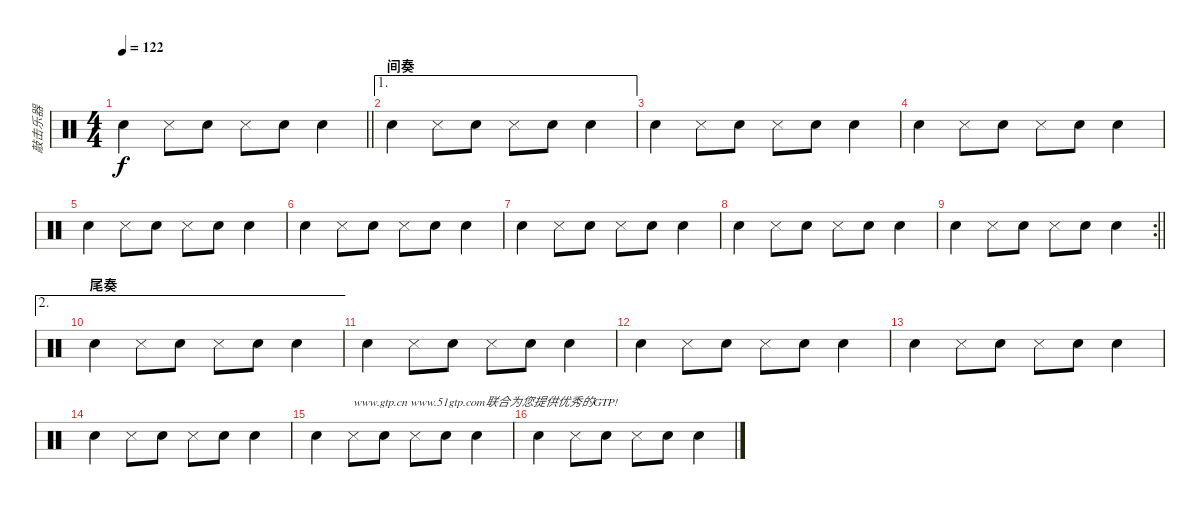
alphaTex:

\track ("敲击乐器" "敲击乐器") {instrument percussion}
\staff {score}
\articulation defaults
\ts (4 4)
\tempo 122
\clef neutral
\barLineRight lightlight
\ks c "Snare (hit) 2".4{dy f} "Snare (side stick) 3".8 "Snare (hit) 2".8 "Snare (side stick) 3".8 "Snare (hit) 2".8 "Snare (hit) 2".4
|
\ae 1
\section ("" "间奏")
"Snare (hit) 2".4 "Snare (side stick) 3".8 "Snare (hit) 2".8 "Snare (side stick) 3".8 "Snare (hit) 2".8 "Snare (hit) 2".4 |
"Snare (hit) 2".4 "Snare (side stick) 3".8 "Snare (hit) 2".8 "Snare (side stick) 3".8 "Snare (hit) 2".8 "Snare (hit) 2".4 |
"Snare (hit) 2".4 "Snare (side stick) 3".8 "Snare (hit) 2".8 "Snare (side stick) 3".8 "Snare (hit) 2".8 "Snare (hit) 2".4 |
"Snare (hit) 2".4 "Snare (side stick) 3".8 "Snare (hit) 2".8 "Snare (side stick) 3".8 "Snare (hit) 2".8 "Snare (hit) 2".4 |
"Snare (hit) 2".4 "Snare (side stick) 3".8 "Snare (hit) 2".8 "Snare (side stick) 3".8 "Snare (hit) 2".8 "Snare (hit) 2".4 |
"Snare (hit) 2".4 "Snare (side stick) 3".8 "Snare (hit) 2".8 "Snare (side stick) 3".8 "Snare (hit) 2".8 "Snare (hit) 2".4 |
"Snare (hit) 2".4 "Snare (side stick) 3".8 "Snare (hit) 2".8 "Snare (side stick) 3".8 "Snare (hit) 2".8 "Snare (hit) 2".4 |
\rc 2
\barLineRight lightlight "Snare (hit) 2".4 "Snare (side stick) 3".8 "Snare (hit) 2".8 "Snare (side stick) 3".8 "Snare (hit) 2".8 "Snare (hit) 2".4
|
\ae 2
\section ("" "尾奏")
"Snare (hit) 2".4 "Snare (side stick) 3".8 "Snare (hit) 2".8 "Snare (side stick) 3".8 "Snare (hit) 2".8 "Snare (hit) 2".4 |
"Snare (hit) 2".4 "Snare (side stick) 3".8 "Snare (hit) 2".8 "Snare (side stick) 3".8 "Snare (hit) 2".8 "Snare (hit) 2".4 |
"Snare (hit) 2".4 "Snare (side stick) 3".8 "Snare (hit) 2".8 "Snare (side stick) 3".8 "Snare (hit) 2".8 "Snare (hit) 2".4 |
"Snare (hit) 2".4 "Snare (side stick) 3".8 "Snare (hit) 2".8 "Snare (side stick) 3".8 "Snare (hit) 2".8 "Snare (hit) 2".4 |
"Snare (hit) 2".4 "Snare (side stick) 3".8 "Snare (hit) 2".8 "Snare (side stick) 3".8 "Snare (hit) 2".8 "Snare (hit) 2".4 |
"Snare (hit) 2".4 "Snare (side stick) 3".8{txt "www.gtp.cn www.51gtp.com联合为您提供优秀的GTP!"} "Snare (hit) 2".8 "Snare (side stick) 3".8 "Snare (hit) 2".8 "Snare (hit) 2".4 |
"Snare (hit) 2".4 "Snare (side stick) 3".8 "Snare (hit) 2".8 "Snare (side stick) 3".8 "Snare (hit) 2".8 "Snare (hit) 2".4
